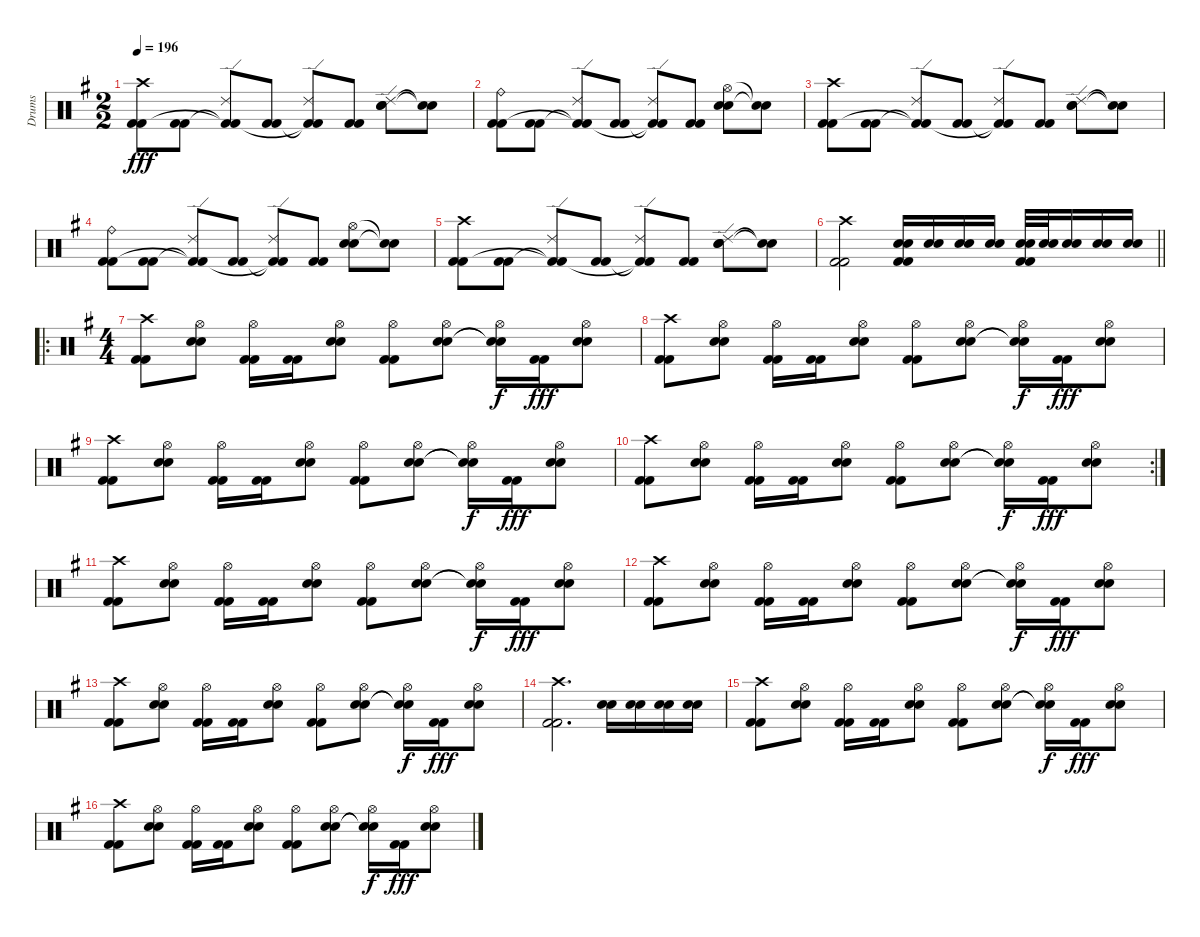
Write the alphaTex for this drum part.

\track ("Drums" "Drums") {instrument percussion}
\staff {score}
\articulation defaults
\ts (2 2)
\tempo 196
\clef neutral
\ks g
("Crash high (hit)" "Kick (hit) 2" "Kick (hit) 2").8{dy fff} ("Kick (hit) 2" "Kick (hit) 2").8 ("Ride (edge) 2" "Kick (hit) 2"{t} "Kick (hit) 2"{t}).8 ("Kick (hit) 2" "Kick (hit) 2").8 ("Ride (edge) 2" "Kick (hit) 2"{t} "Kick (hit) 2"{t}).8 ("Kick (hit) 2" "Kick (hit) 2").8 ("Ride (edge) 2" "Snare (hit) 2" "Snare (hit) 2").8 ("Snare (hit) 2"{t} "Snare (hit) 2"{t}).8 |
("Ride (bell)" "Kick (hit) 2" "Kick (hit) 2").8 ("Kick (hit) 2" "Kick (hit) 2").8 ("Ride (edge) 2" "Kick (hit) 2"{t} "Kick (hit) 2"{t}).8 ("Kick (hit) 2" "Kick (hit) 2").8 ("Ride (edge) 2" "Kick (hit) 2"{t} "Kick (hit) 2"{t}).8 ("Kick (hit) 2" "Kick (hit) 2").8 ("Hi-Hat (open)" "Snare (hit) 2" "Snare (hit) 2").8 ("Snare (hit) 2"{t} "Snare (hit) 2"{t}).8 |
("Crash high (hit)" "Kick (hit) 2" "Kick (hit) 2").8 ("Kick (hit) 2" "Kick (hit) 2").8 ("Ride (edge) 2" "Kick (hit) 2"{t} "Kick (hit) 2"{t}).8 ("Kick (hit) 2" "Kick (hit) 2").8 ("Ride (edge) 2" "Kick (hit) 2"{t} "Kick (hit) 2"{t}).8 ("Kick (hit) 2" "Kick (hit) 2").8 ("Ride (edge) 2" "Snare (hit) 2" "Snare (hit) 2").8 ("Snare (hit) 2"{t} "Snare (hit) 2"{t}).8 |
("Ride (bell)" "Kick (hit) 2" "Kick (hit) 2").8 ("Kick (hit) 2" "Kick (hit) 2").8 ("Ride (edge) 2" "Kick (hit) 2"{t} "Kick (hit) 2"{t}).8 ("Kick (hit) 2" "Kick (hit) 2").8 ("Ride (edge) 2" "Kick (hit) 2"{t} "Kick (hit) 2"{t}).8 ("Kick (hit) 2" "Kick (hit) 2").8 ("Hi-Hat (open)" "Snare (hit) 2" "Snare (hit) 2").8 ("Snare (hit) 2"{t} "Snare (hit) 2"{t}).8 |
("Crash high (hit)" "Kick (hit) 2" "Kick (hit) 2").8 ("Kick (hit) 2" "Kick (hit) 2").8 ("Ride (edge) 2" "Kick (hit) 2"{t} "Kick (hit) 2"{t}).8 ("Kick (hit) 2" "Kick (hit) 2").8 ("Ride (edge) 2" "Kick (hit) 2"{t} "Kick (hit) 2"{t}).8 ("Kick (hit) 2" "Kick (hit) 2").8 ("Ride (edge) 2" "Snare (hit) 2" "Snare (hit) 2").8 ("Snare (hit) 2"{t} "Snare (hit) 2"{t}).8 |
\barLineRight lightlight
("Crash high (hit)" "Kick (hit) 2" "Kick (hit) 2").2 ("Snare (hit) 2" "Snare (hit) 2" "Kick (hit) 2" "Kick (hit) 2").16 ("Snare (hit) 2" "Snare (hit) 2").16 ("Snare (hit) 2" "Snare (hit) 2").16 ("Snare (hit) 2" "Snare (hit) 2").16 ("Snare (hit) 2" "Snare (hit) 2" "Kick (hit) 2" "Kick (hit) 2").32 ("Snare (hit) 2" "Snare (hit) 2").32 ("Snare (hit) 2" "Snare (hit) 2").16 ("Snare (hit) 2" "Snare (hit) 2").16 ("Snare (hit) 2" "Snare (hit) 2").16 |
\ro
\ts (4 4)
("Crash high (hit)" "Kick (hit) 2" "Kick (hit) 2").8 ("Hi-Hat (open)" "Snare (hit) 2" "Snare (hit) 2").8 ("Hi-Hat (open)" "Kick (hit) 2" "Kick (hit) 2").16 ("Kick (hit) 2" "Kick (hit) 2").16 ("Hi-Hat (open)" "Snare (hit) 2" "Snare (hit) 2").8 ("Hi-Hat (open)" "Kick (hit) 2" "Kick (hit) 2").8 ("Hi-Hat (open)" "Snare (hit) 2" "Snare (hit) 2").8 ("Hi-Hat (open)" "Snare (hit) 2"{t} "Snare (hit) 2"{t}).16{dy f} ("Kick (hit) 2" "Kick (hit) 2").16{dy fff} ("Hi-Hat (open)" "Snare (hit) 2" "Snare (hit) 2").8 |
("Crash high (hit)" "Kick (hit) 2" "Kick (hit) 2").8 ("Hi-Hat (open)" "Snare (hit) 2" "Snare (hit) 2").8 ("Hi-Hat (open)" "Kick (hit) 2" "Kick (hit) 2").16 ("Kick (hit) 2" "Kick (hit) 2").16 ("Hi-Hat (open)" "Snare (hit) 2" "Snare (hit) 2").8 ("Hi-Hat (open)" "Kick (hit) 2" "Kick (hit) 2").8 ("Hi-Hat (open)" "Snare (hit) 2" "Snare (hit) 2").8 ("Hi-Hat (open)" "Snare (hit) 2"{t} "Snare (hit) 2"{t}).16{dy f} ("Kick (hit) 2" "Kick (hit) 2").16{dy fff} ("Hi-Hat (open)" "Snare (hit) 2" "Snare (hit) 2").8 |
("Crash high (hit)" "Kick (hit) 2" "Kick (hit) 2").8 ("Hi-Hat (open)" "Snare (hit) 2" "Snare (hit) 2").8 ("Hi-Hat (open)" "Kick (hit) 2" "Kick (hit) 2").16 ("Kick (hit) 2" "Kick (hit) 2").16 ("Hi-Hat (open)" "Snare (hit) 2" "Snare (hit) 2").8 ("Hi-Hat (open)" "Kick (hit) 2" "Kick (hit) 2").8 ("Hi-Hat (open)" "Snare (hit) 2" "Snare (hit) 2").8 ("Hi-Hat (open)" "Snare (hit) 2"{t} "Snare (hit) 2"{t}).16{dy f} ("Kick (hit) 2" "Kick (hit) 2").16{dy fff} ("Hi-Hat (open)" "Snare (hit) 2" "Snare (hit) 2").8 |
\rc 2
("Crash high (hit)" "Kick (hit) 2" "Kick (hit) 2").8 ("Hi-Hat (open)" "Snare (hit) 2" "Snare (hit) 2").8 ("Hi-Hat (open)" "Kick (hit) 2" "Kick (hit) 2").16 ("Kick (hit) 2" "Kick (hit) 2").16 ("Hi-Hat (open)" "Snare (hit) 2" "Snare (hit) 2").8 ("Hi-Hat (open)" "Kick (hit) 2" "Kick (hit) 2").8 ("Hi-Hat (open)" "Snare (hit) 2" "Snare (hit) 2").8 ("Hi-Hat (open)" "Snare (hit) 2"{t} "Snare (hit) 2"{t}).16{dy f} ("Kick (hit) 2" "Kick (hit) 2").16{dy fff} ("Hi-Hat (open)" "Snare (hit) 2" "Snare (hit) 2").8 |
("Crash high (hit)" "Kick (hit) 2" "Kick (hit) 2").8 ("Hi-Hat (open)" "Snare (hit) 2" "Snare (hit) 2").8 ("Hi-Hat (open)" "Kick (hit) 2" "Kick (hit) 2").16 ("Kick (hit) 2" "Kick (hit) 2").16 ("Hi-Hat (open)" "Snare (hit) 2" "Snare (hit) 2").8 ("Hi-Hat (open)" "Kick (hit) 2" "Kick (hit) 2").8 ("Hi-Hat (open)" "Snare (hit) 2" "Snare (hit) 2").8 ("Hi-Hat (open)" "Snare (hit) 2"{t} "Snare (hit) 2"{t}).16{dy f} ("Kick (hit) 2" "Kick (hit) 2").16{dy fff} ("Hi-Hat (open)" "Snare (hit) 2" "Snare (hit) 2").8 |
("Crash high (hit)" "Kick (hit) 2" "Kick (hit) 2").8 ("Hi-Hat (open)" "Snare (hit) 2" "Snare (hit) 2").8 ("Hi-Hat (open)" "Kick (hit) 2" "Kick (hit) 2").16 ("Kick (hit) 2" "Kick (hit) 2").16 ("Hi-Hat (open)" "Snare (hit) 2" "Snare (hit) 2").8 ("Hi-Hat (open)" "Kick (hit) 2" "Kick (hit) 2").8 ("Hi-Hat (open)" "Snare (hit) 2" "Snare (hit) 2").8 ("Hi-Hat (open)" "Snare (hit) 2"{t} "Snare (hit) 2"{t}).16{dy f} ("Kick (hit) 2" "Kick (hit) 2").16{dy fff} ("Hi-Hat (open)" "Snare (hit) 2" "Snare (hit) 2").8 |
("Crash high (hit)" "Kick (hit) 2" "Kick (hit) 2").8 ("Hi-Hat (open)" "Snare (hit) 2" "Snare (hit) 2").8 ("Hi-Hat (open)" "Kick (hit) 2" "Kick (hit) 2").16 ("Kick (hit) 2" "Kick (hit) 2").16 ("Hi-Hat (open)" "Snare (hit) 2" "Snare (hit) 2").8 ("Hi-Hat (open)" "Kick (hit) 2" "Kick (hit) 2").8 ("Hi-Hat (open)" "Snare (hit) 2" "Snare (hit) 2").8 ("Hi-Hat (open)" "Snare (hit) 2"{t} "Snare (hit) 2"{t}).16{dy f} ("Kick (hit) 2" "Kick (hit) 2").16{dy fff} ("Hi-Hat (open)" "Snare (hit) 2" "Snare (hit) 2").8 |
("Crash high (hit)" "Kick (hit) 2" "Kick (hit) 2").2{d} ("Snare (hit) 2" "Snare (hit) 2").16 ("Snare (hit) 2" "Snare (hit) 2").16 ("Snare (hit) 2" "Snare (hit) 2").16 ("Snare (hit) 2" "Snare (hit) 2").16 |
("Crash high (hit)" "Kick (hit) 2" "Kick (hit) 2").8 ("Hi-Hat (open)" "Snare (hit) 2" "Snare (hit) 2").8 ("Hi-Hat (open)" "Kick (hit) 2" "Kick (hit) 2").16 ("Kick (hit) 2" "Kick (hit) 2").16 ("Hi-Hat (open)" "Snare (hit) 2" "Snare (hit) 2").8 ("Hi-Hat (open)" "Kick (hit) 2" "Kick (hit) 2").8 ("Hi-Hat (open)" "Snare (hit) 2" "Snare (hit) 2").8 ("Hi-Hat (open)" "Snare (hit) 2"{t} "Snare (hit) 2"{t}).16{dy f} ("Kick (hit) 2" "Kick (hit) 2").16{dy fff} ("Hi-Hat (open)" "Snare (hit) 2" "Snare (hit) 2").8 |
("Crash high (hit)" "Kick (hit) 2" "Kick (hit) 2").8 ("Hi-Hat (open)" "Snare (hit) 2" "Snare (hit) 2").8 ("Hi-Hat (open)" "Kick (hit) 2" "Kick (hit) 2").16 ("Kick (hit) 2" "Kick (hit) 2").16 ("Hi-Hat (open)" "Snare (hit) 2" "Snare (hit) 2").8 ("Hi-Hat (open)" "Kick (hit) 2" "Kick (hit) 2").8 ("Hi-Hat (open)" "Snare (hit) 2" "Snare (hit) 2").8 ("Hi-Hat (open)" "Snare (hit) 2"{t} "Snare (hit) 2"{t}).16{dy f} ("Kick (hit) 2" "Kick (hit) 2").16{dy fff} ("Hi-Hat (open)" "Snare (hit) 2" "Snare (hit) 2").8
